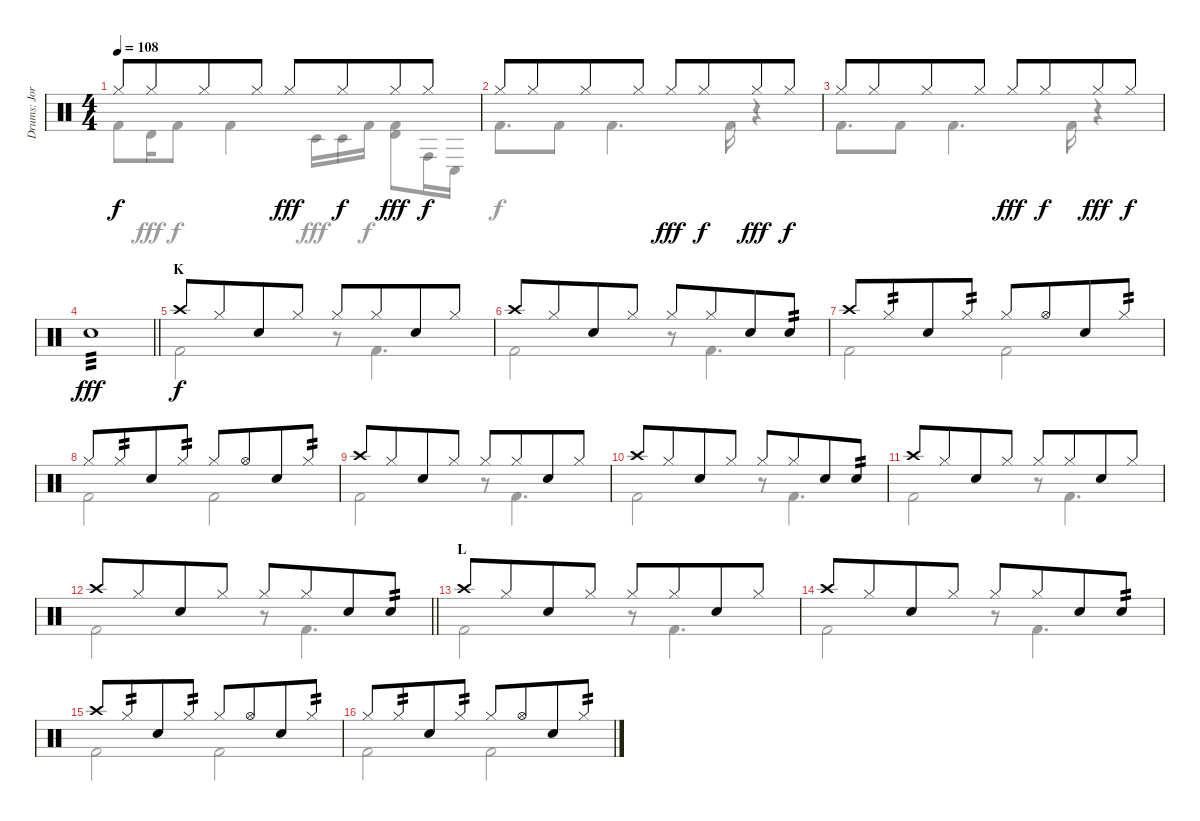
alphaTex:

\track ("Drums: Jorg" "Drums: Jor") {instrument percussion}
\staff {score}
\articulation defaults
\voice
\ts (4 4)
\tempo 108
\clef neutral
\ks c "Hi-Hat (closed)".8{dy f} "Hi-Hat (closed)".8{beam merge} "Hi-Hat (closed)".8 "Hi-Hat (closed)".8 "Hi-Hat (closed)".8{dy fff} "Hi-Hat (closed)".8{dy f beam merge} "Hi-Hat (closed)".8{dy fff} "Hi-Hat (closed)".8{dy f}
|
"Hi-Hat (closed)".8 "Hi-Hat (closed)".8{beam merge} "Hi-Hat (closed)".8 "Hi-Hat (closed)".8 "Hi-Hat (closed)".8{dy fff} "Hi-Hat (closed)".8{dy f beam merge} "Hi-Hat (closed)".8{dy fff} "Hi-Hat (closed)".8{dy f} |
"Hi-Hat (closed)".8 "Hi-Hat (closed)".8{beam merge} "Hi-Hat (closed)".8 "Hi-Hat (closed)".8 "Hi-Hat (closed)".8{dy fff} "Hi-Hat (closed)".8{dy f beam merge} "Hi-Hat (closed)".8{dy fff} "Hi-Hat (closed)".8{dy f} |
\barLineRight lightlight "Snare (hit) 2".1{tp 3 dy fff}
|
\section ("" "K")
"Crash high (hit)".8{dy f} "Hi-Hat (closed)".8{beam merge} "Snare (hit) 2".8 "Hi-Hat (closed)".8 "Hi-Hat (closed)".8 "Hi-Hat (closed)".8{beam merge} "Snare (hit) 2".8 "Hi-Hat (closed)".8 |
"Crash high (hit)".8 "Hi-Hat (closed)".8{beam merge} "Snare (hit) 2".8 "Hi-Hat (closed)".8 "Hi-Hat (closed)".8 "Hi-Hat (closed)".8{beam merge} "Snare (hit) 2".8 "Electric Snare (hit)".8{tp 2} |
"Crash high (hit)".8 "Hi-Hat (closed)".8{tp 2 beam merge} "Snare (hit) 2".8 "Hi-Hat (closed)".8{tp 2} "Hi-Hat (closed)".8 "Hi-Hat (open)".8{beam merge} "Snare (hit) 2".8 "Hi-Hat (closed)".8{tp 2} |
"Hi-Hat (closed)".8 "Hi-Hat (closed)".8{tp 2 beam merge} "Snare (hit) 2".8 "Hi-Hat (closed)".8{tp 2} "Hi-Hat (closed)".8 "Hi-Hat (open)".8{beam merge} "Snare (hit) 2".8 "Hi-Hat (closed)".8{tp 2} |
"Crash high (hit)".8 "Hi-Hat (closed)".8{beam merge} "Snare (hit) 2".8 "Hi-Hat (closed)".8 "Hi-Hat (closed)".8 "Hi-Hat (closed)".8{beam merge} "Snare (hit) 2".8 "Hi-Hat (closed)".8 |
"Crash high (hit)".8 "Hi-Hat (closed)".8{beam merge} "Snare (hit) 2".8 "Hi-Hat (closed)".8 "Hi-Hat (closed)".8 "Hi-Hat (closed)".8{beam merge} "Snare (hit) 2".8 "Electric Snare (hit)".8{tp 2} |
"Crash high (hit)".8 "Hi-Hat (closed)".8{beam merge} "Snare (hit) 2".8 "Hi-Hat (closed)".8 "Hi-Hat (closed)".8 "Hi-Hat (closed)".8{beam merge} "Snare (hit) 2".8 "Hi-Hat (closed)".8 |
\barLineRight lightlight "Crash high (hit)".8 "Hi-Hat (closed)".8{beam merge} "Snare (hit) 2".8 "Hi-Hat (closed)".8 "Hi-Hat (closed)".8 "Hi-Hat (closed)".8{beam merge} "Snare (hit) 2".8 "Electric Snare (hit)".8{tp 2}
|
\section ("" "L")
"Crash high (hit)".8 "Hi-Hat (closed)".8{beam merge} "Snare (hit) 2".8 "Hi-Hat (closed)".8 "Hi-Hat (closed)".8 "Hi-Hat (closed)".8{beam merge} "Snare (hit) 2".8 "Hi-Hat (closed)".8 |
"Crash high (hit)".8 "Hi-Hat (closed)".8{beam merge} "Snare (hit) 2".8 "Hi-Hat (closed)".8 "Hi-Hat (closed)".8 "Hi-Hat (closed)".8{beam merge} "Snare (hit) 2".8 "Electric Snare (hit)".8{tp 2} |
"Crash high (hit)".8 "Hi-Hat (closed)".8{tp 2 beam merge} "Snare (hit) 2".8 "Hi-Hat (closed)".8{tp 2} "Hi-Hat (closed)".8 "Hi-Hat (open)".8{beam merge} "Snare (hit) 2".8 "Hi-Hat (closed)".8{tp 2} |
"Hi-Hat (closed)".8 "Hi-Hat (closed)".8{tp 2 beam merge} "Snare (hit) 2".8 "Hi-Hat (closed)".8{tp 2} "Hi-Hat (closed)".8 "Hi-Hat (open)".8{beam merge} "Snare (hit) 2".8 "Hi-Hat (closed)".8{tp 2}
\voice
\clef neutral
\ottava regular
\simile none
\ks c "Kick (hit) 2".8{dy f} "Timbale high (hit)".16{dy fff} "Kick (hit) 2".8{dy f} "Kick (hit) 2".4 "Timbale low (hit)".16{dy fff} "Timbale low (hit)".16 "Kick (hit) 2".16{dy f}
("Kick (hit) 2" "Timbale high (hit)").8{dy fff} "Conga high (hit)".16 "Conga low (hit)".16 |
"Kick (hit) 2".8{d dy f} "Kick (hit) 2".8 "Kick (hit) 2".4{d} "Kick (hit) 2".16 r.4 |
"Kick (hit) 2".8{d} "Kick (hit) 2".8 "Kick (hit) 2".4{d} "Kick (hit) 2".16 r.4 |
\barLineRight lightlight
|
"Kick (hit) 2".2 r.8 "Kick (hit) 2".4{d} |
"Kick (hit) 2".2 r.8 "Kick (hit) 2".4{d} |
"Kick (hit) 2".2 "Kick (hit) 2".2 |
"Kick (hit) 2".2 "Kick (hit) 2".2 |
"Kick (hit) 2".2 r.8 "Kick (hit) 2".4{d} |
"Kick (hit) 2".2 r.8 "Kick (hit) 2".4{d} |
"Kick (hit) 2".2 r.8 "Kick (hit) 2".4{d} |
\barLineRight lightlight "Kick (hit) 2".2
r.8 "Kick (hit) 2".4{d} |
"Kick (hit) 2".2 r.8 "Kick (hit) 2".4{d} |
"Kick (hit) 2".2 r.8 "Kick (hit) 2".4{d} |
"Kick (hit) 2".2 "Kick (hit) 2".2 |
"Kick (hit) 2".2 "Kick (hit) 2".2
